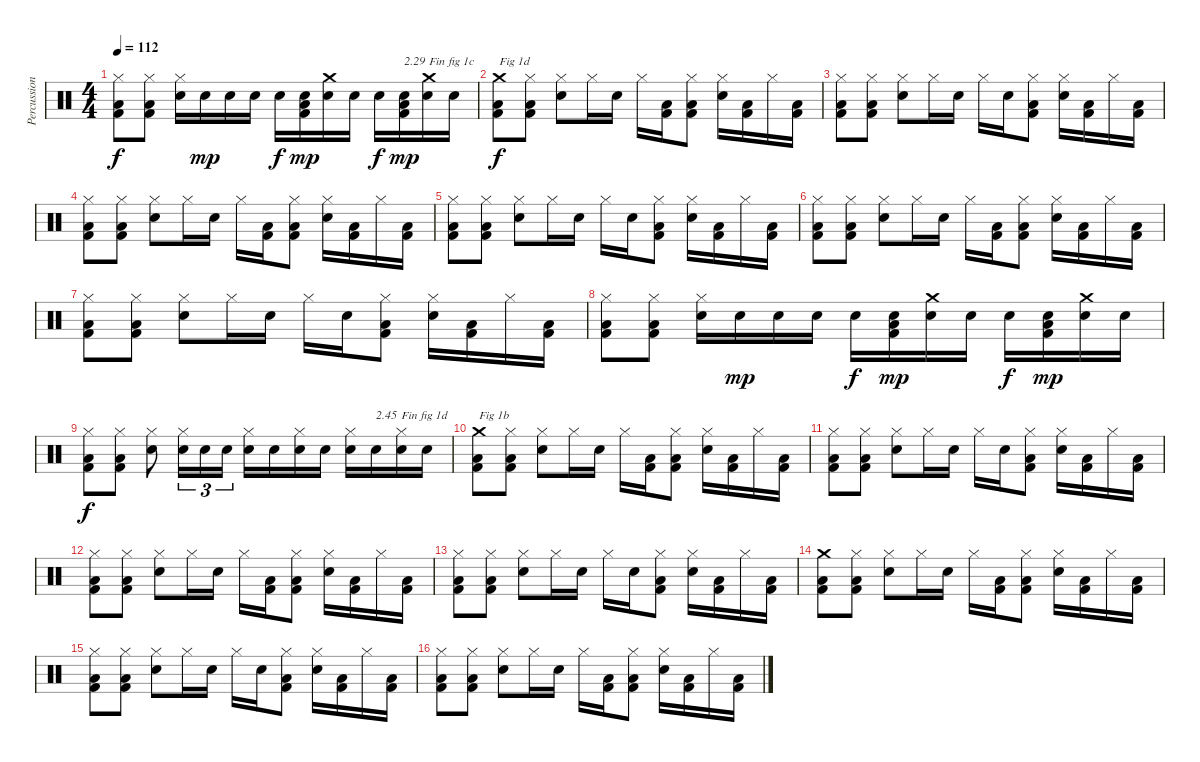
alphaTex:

\track ("Percussions" "Percussion") {instrument percussion}
\staff {score}
\articulation defaults
\ts (4 4)
\tempo 112
\clef neutral
\ks c
("Kick (hit) 2" "Low Floor Tom (hit)" "Hi-Hat (closed)").8{dy f} ("Kick (hit) 2" "Low Floor Tom (hit)" "Hi-Hat (closed)").8 ("Snare (hit) 2" "Hi-Hat (closed)").16 "Snare (hit) 2".16{dy mp} "Snare (hit) 2".16 "Snare (hit) 2".16 "Snare (hit) 2".16{dy f} ("Kick (hit) 2" "Low Floor Tom (hit)" "Snare (hit) 2").16{dy mp} ("Snare (hit) 2" "Crash medium (hit)").16 "Snare (hit) 2".16 "Snare (hit) 2".16{dy f} ("Kick (hit) 2" "Low Floor Tom (hit)" "Snare (hit) 2").16{txt "2.29" dy mp} ("Snare (hit) 2" "Crash medium (hit)").16{txt "Fin fig 1c"} "Snare (hit) 2".16 |
("Kick (hit) 2" "Low Floor Tom (hit)" "Crash medium (hit)").8{txt "Fig 1d" dy f} ("Kick (hit) 2" "Low Floor Tom (hit)" "Hi-Hat (closed)").8 ("Snare (hit) 2" "Hi-Hat (closed)").8 "Hi-Hat (closed)".16 "Snare (hit) 2".16 "Hi-Hat (closed)".16 ("Kick (hit) 2" "Low Floor Tom (hit)").16 ("Kick (hit) 2" "Low Floor Tom (hit)" "Hi-Hat (closed)").8 ("Snare (hit) 2" "Hi-Hat (closed)").16 ("Kick (hit) 2" "Low Floor Tom (hit)").16 "Hi-Hat (closed)".16 ("Kick (hit) 2" "Low Floor Tom (hit)").16 |
("Kick (hit) 2" "Low Floor Tom (hit)" "Hi-Hat (closed)").8 ("Kick (hit) 2" "Low Floor Tom (hit)" "Hi-Hat (closed)").8 ("Snare (hit) 2" "Hi-Hat (closed)").8 "Hi-Hat (closed)".16 "Snare (hit) 2".16 "Hi-Hat (closed)".16 "Snare (hit) 2".16 ("Kick (hit) 2" "Low Floor Tom (hit)" "Hi-Hat (closed)").8 ("Snare (hit) 2" "Hi-Hat (closed)").16 ("Kick (hit) 2" "Low Floor Tom (hit)").16 "Hi-Hat (closed)".16 ("Kick (hit) 2" "Low Floor Tom (hit)").16 |
("Kick (hit) 2" "Low Floor Tom (hit)" "Hi-Hat (closed)").8 ("Kick (hit) 2" "Low Floor Tom (hit)" "Hi-Hat (closed)").8 ("Snare (hit) 2" "Hi-Hat (closed)").8 "Hi-Hat (closed)".16 "Snare (hit) 2".16 "Hi-Hat (closed)".16 ("Kick (hit) 2" "Low Floor Tom (hit)").16 ("Kick (hit) 2" "Low Floor Tom (hit)" "Hi-Hat (closed)").8 ("Snare (hit) 2" "Hi-Hat (closed)").16 ("Kick (hit) 2" "Low Floor Tom (hit)").16 "Hi-Hat (closed)".16 ("Kick (hit) 2" "Low Floor Tom (hit)").16 |
("Kick (hit) 2" "Low Floor Tom (hit)" "Hi-Hat (closed)").8 ("Kick (hit) 2" "Low Floor Tom (hit)" "Hi-Hat (closed)").8 ("Snare (hit) 2" "Hi-Hat (closed)").8 "Hi-Hat (closed)".16 "Snare (hit) 2".16 "Hi-Hat (closed)".16 "Snare (hit) 2".16 ("Kick (hit) 2" "Low Floor Tom (hit)" "Hi-Hat (closed)").8 ("Snare (hit) 2" "Hi-Hat (closed)").16 ("Kick (hit) 2" "Low Floor Tom (hit)").16 "Hi-Hat (closed)".16 ("Kick (hit) 2" "Low Floor Tom (hit)").16 |
("Kick (hit) 2" "Low Floor Tom (hit)" "Hi-Hat (closed)").8 ("Kick (hit) 2" "Low Floor Tom (hit)" "Hi-Hat (closed)").8 ("Snare (hit) 2" "Hi-Hat (closed)").8 "Hi-Hat (closed)".16 "Snare (hit) 2".16 "Hi-Hat (closed)".16 ("Kick (hit) 2" "Low Floor Tom (hit)").16 ("Kick (hit) 2" "Low Floor Tom (hit)" "Hi-Hat (closed)").8 ("Snare (hit) 2" "Hi-Hat (closed)").16 ("Kick (hit) 2" "Low Floor Tom (hit)").16 "Hi-Hat (closed)".16 ("Kick (hit) 2" "Low Floor Tom (hit)").16 |
("Kick (hit) 2" "Low Floor Tom (hit)" "Hi-Hat (closed)").8 ("Kick (hit) 2" "Low Floor Tom (hit)" "Hi-Hat (closed)").8 ("Snare (hit) 2" "Hi-Hat (closed)").8 "Hi-Hat (closed)".16 "Snare (hit) 2".16 "Hi-Hat (closed)".16 "Snare (hit) 2".16 ("Kick (hit) 2" "Low Floor Tom (hit)" "Hi-Hat (closed)").8 ("Snare (hit) 2" "Hi-Hat (closed)").16 ("Kick (hit) 2" "Low Floor Tom (hit)").16 "Hi-Hat (closed)".16 ("Kick (hit) 2" "Low Floor Tom (hit)").16 |
("Kick (hit) 2" "Low Floor Tom (hit)" "Hi-Hat (closed)").8 ("Kick (hit) 2" "Low Floor Tom (hit)" "Hi-Hat (closed)").8 ("Snare (hit) 2" "Hi-Hat (closed)").16 "Snare (hit) 2".16{dy mp} "Snare (hit) 2".16 "Snare (hit) 2".16 "Snare (hit) 2".16{dy f} ("Kick (hit) 2" "Low Floor Tom (hit)" "Snare (hit) 2").16{dy mp} ("Snare (hit) 2" "Crash medium (hit)").16 "Snare (hit) 2".16 "Snare (hit) 2".16{dy f} ("Kick (hit) 2" "Low Floor Tom (hit)" "Snare (hit) 2").16{dy mp} ("Snare (hit) 2" "Crash medium (hit)").16 "Snare (hit) 2".16 |
("Kick (hit) 2" "Low Floor Tom (hit)" "Hi-Hat (closed)").8{dy f} ("Kick (hit) 2" "Low Floor Tom (hit)" "Hi-Hat (closed)").8 ("Snare (hit) 2" "Hi-Hat (closed)").8 ("Snare (hit) 2" "Hi-Hat (closed)").16{tu (3 2)} "Snare (hit) 2".16{tu (3 2)} "Snare (hit) 2".16{tu (3 2)} ("Snare (hit) 2" "Hi-Hat (closed)").16 "Snare (hit) 2".16 ("Snare (hit) 2" "Hi-Hat (closed)").16 "Snare (hit) 2".16 ("Snare (hit) 2" "Hi-Hat (closed)").16 "Snare (hit) 2".16{txt "2.45"} ("Snare (hit) 2" "Hi-Hat (closed)").16{txt "Fin fig 1d"} "Snare (hit) 2".16 |
("Kick (hit) 2" "Low Floor Tom (hit)" "Crash medium (hit)").8{txt "Fig 1b"} ("Kick (hit) 2" "Low Floor Tom (hit)" "Hi-Hat (closed)").8 ("Snare (hit) 2" "Hi-Hat (closed)").8 "Hi-Hat (closed)".16 "Snare (hit) 2".16 "Hi-Hat (closed)".16 ("Kick (hit) 2" "Low Floor Tom (hit)").16 ("Kick (hit) 2" "Low Floor Tom (hit)" "Hi-Hat (closed)").8 ("Snare (hit) 2" "Hi-Hat (closed)").16 ("Kick (hit) 2" "Low Floor Tom (hit)").16 "Hi-Hat (closed)".16 ("Kick (hit) 2" "Low Floor Tom (hit)").16 |
("Kick (hit) 2" "Low Floor Tom (hit)" "Hi-Hat (closed)").8 ("Kick (hit) 2" "Low Floor Tom (hit)" "Hi-Hat (closed)").8 ("Snare (hit) 2" "Hi-Hat (closed)").8 "Hi-Hat (closed)".16 "Snare (hit) 2".16 "Hi-Hat (closed)".16 "Snare (hit) 2".16 ("Kick (hit) 2" "Low Floor Tom (hit)" "Hi-Hat (closed)").8 ("Snare (hit) 2" "Hi-Hat (closed)").16 ("Kick (hit) 2" "Low Floor Tom (hit)").16 "Hi-Hat (closed)".16 ("Kick (hit) 2" "Low Floor Tom (hit)").16 |
("Kick (hit) 2" "Low Floor Tom (hit)" "Hi-Hat (closed)").8 ("Kick (hit) 2" "Low Floor Tom (hit)" "Hi-Hat (closed)").8 ("Snare (hit) 2" "Hi-Hat (closed)").8 "Hi-Hat (closed)".16 "Snare (hit) 2".16 "Hi-Hat (closed)".16 ("Kick (hit) 2" "Low Floor Tom (hit)").16 ("Kick (hit) 2" "Low Floor Tom (hit)" "Hi-Hat (closed)").8 ("Snare (hit) 2" "Hi-Hat (closed)").16 ("Kick (hit) 2" "Low Floor Tom (hit)").16 "Hi-Hat (closed)".16 ("Kick (hit) 2" "Low Floor Tom (hit)").16 |
("Kick (hit) 2" "Low Floor Tom (hit)" "Hi-Hat (closed)").8 ("Kick (hit) 2" "Low Floor Tom (hit)" "Hi-Hat (closed)").8 ("Snare (hit) 2" "Hi-Hat (closed)").8 "Hi-Hat (closed)".16 "Snare (hit) 2".16 "Hi-Hat (closed)".16 "Snare (hit) 2".16 ("Kick (hit) 2" "Low Floor Tom (hit)" "Hi-Hat (closed)").8 ("Snare (hit) 2" "Hi-Hat (closed)").16 ("Kick (hit) 2" "Low Floor Tom (hit)").16 "Hi-Hat (closed)".16 ("Kick (hit) 2" "Low Floor Tom (hit)").16 |
("Kick (hit) 2" "Low Floor Tom (hit)" "Crash medium (hit)").8 ("Kick (hit) 2" "Low Floor Tom (hit)" "Hi-Hat (closed)").8 ("Snare (hit) 2" "Hi-Hat (closed)").8 "Hi-Hat (closed)".16 "Snare (hit) 2".16 "Hi-Hat (closed)".16 ("Kick (hit) 2" "Low Floor Tom (hit)").16 ("Kick (hit) 2" "Low Floor Tom (hit)" "Hi-Hat (closed)").8 ("Snare (hit) 2" "Hi-Hat (closed)").16 ("Kick (hit) 2" "Low Floor Tom (hit)").16 "Hi-Hat (closed)".16 ("Kick (hit) 2" "Low Floor Tom (hit)").16 |
("Kick (hit) 2" "Low Floor Tom (hit)" "Hi-Hat (closed)").8 ("Kick (hit) 2" "Low Floor Tom (hit)" "Hi-Hat (closed)").8 ("Snare (hit) 2" "Hi-Hat (closed)").8 "Hi-Hat (closed)".16 "Snare (hit) 2".16 "Hi-Hat (closed)".16 "Snare (hit) 2".16 ("Kick (hit) 2" "Low Floor Tom (hit)" "Hi-Hat (closed)").8 ("Snare (hit) 2" "Hi-Hat (closed)").16 ("Kick (hit) 2" "Low Floor Tom (hit)").16 "Hi-Hat (closed)".16 ("Kick (hit) 2" "Low Floor Tom (hit)").16 |
("Kick (hit) 2" "Low Floor Tom (hit)" "Hi-Hat (closed)").8 ("Kick (hit) 2" "Low Floor Tom (hit)" "Hi-Hat (closed)").8 ("Snare (hit) 2" "Hi-Hat (closed)").8 "Hi-Hat (closed)".16 "Snare (hit) 2".16 "Hi-Hat (closed)".16 ("Kick (hit) 2" "Low Floor Tom (hit)").16 ("Kick (hit) 2" "Low Floor Tom (hit)" "Hi-Hat (closed)").8 ("Snare (hit) 2" "Hi-Hat (closed)").16 ("Kick (hit) 2" "Low Floor Tom (hit)").16 "Hi-Hat (closed)".16 ("Kick (hit) 2" "Low Floor Tom (hit)").16
